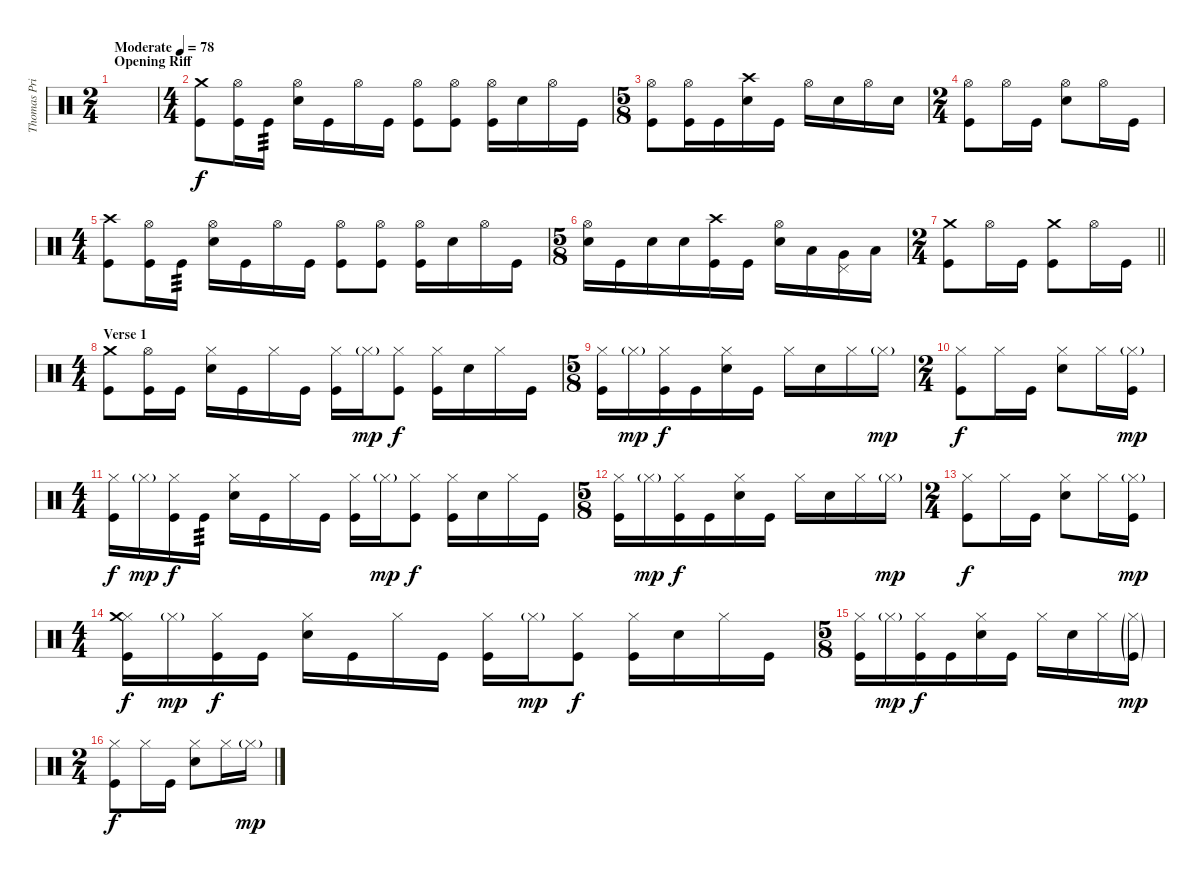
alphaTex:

\track ("Thomas Pridgen" "Thomas Pri") {instrument percussion}
\staff {score}
\articulation defaults
\ts (2 4)
\section ("" "Opening Riff")
\tempo (78 "Moderate")
\clef neutral
\ks c
|
\ts (4 4)
("Crash medium (hit)" "Kick (hit)").8 ("Hi-Hat (open)" "Kick (hit)").16 "Kick (hit)".16{tp 3} ("Hi-Hat (open)" "Snare (hit) 2").16 "Kick (hit)".16 "Hi-Hat (open)".16 "Kick (hit)".16 ("Hi-Hat (open)" "Kick (hit)").8 ("Hi-Hat (open)" "Kick (hit)").8 ("Hi-Hat (open)" "Kick (hit)").16 "Snare (hit) 2".16 "Hi-Hat (open)".16 "Kick (hit)".16 |
\ts (5 8)
("Hi-Hat (open)" "Kick (hit)").8 ("Hi-Hat (open)" "Kick (hit)").16 "Kick (hit)".16 ("Crash high (hit)" "Snare (hit) 2").16 "Kick (hit)".16 "Hi-Hat (open)".16 "Snare (hit) 2".16 "Hi-Hat (open)".16 "Snare (hit) 2".16 |
\ts (2 4)
("Hi-Hat (open)" "Kick (hit)").8 "Hi-Hat (open)".16 "Kick (hit)".16 ("Hi-Hat (open)" "Snare (hit) 2").8 "Hi-Hat (open)".16 "Kick (hit)".16 |
\ts (4 4)
("Crash high (hit)" "Kick (hit)").8 ("Hi-Hat (open)" "Kick (hit)").16 "Kick (hit)".16{tp 3} ("Hi-Hat (open)" "Snare (hit) 2").16 "Kick (hit)".16 "Hi-Hat (open)".16 "Kick (hit)".16 ("Hi-Hat (open)" "Kick (hit)").8 ("Hi-Hat (open)" "Kick (hit)").8 ("Hi-Hat (open)" "Kick (hit)").16 "Snare (hit) 2".16 "Hi-Hat (open)".16 "Kick (hit)".16 |
\ts (5 8)
("Hi-Hat (open)" "Snare (hit) 2").16 "Kick (hit)".16 "Snare (hit) 2".16 "Snare (hit) 2".16 ("Crash high (hit)" "Kick (hit)").16 "Kick (hit)".16 ("Hi-Hat (open)" "Snare (hit) 2").16 "Low Tom (hit)".16 ("Pedal Hi-Hat (hit)" "Very Low Tom (hit)").16 "Low Floor Tom (hit)".16 |
\ts (2 4)
\barLineRight lightlight
("Crash medium (hit)" "Kick (hit)").8 "Hi-Hat (open)".16 "Kick (hit)".16 ("Crash medium (hit)" "Kick (hit)").8 "Hi-Hat (open)".16 "Kick (hit)".16 |
\ts (4 4)
\section ("" "Verse 1")
("Crash medium (hit)" "Kick (hit)").8 ("Hi-Hat (open)" "Kick (hit)").16 "Kick (hit)".16 ("Hi-Hat (closed)" "Snare (hit) 2").16 "Kick (hit)".16 "Hi-Hat (closed)".16 "Kick (hit)".16 ("Hi-Hat (closed)" "Kick (hit)").16 "Hi-Hat (closed)"{g}.16{dy mp} ("Hi-Hat (closed)" "Kick (hit)").8{dy f} ("Hi-Hat (closed)" "Kick (hit)").16 "Snare (hit) 2".16 "Hi-Hat (closed)".16 "Kick (hit)".16 |
\ts (5 8)
("Hi-Hat (closed)" "Kick (hit)").16 "Hi-Hat (closed)"{g}.16{dy mp} ("Hi-Hat (closed)" "Kick (hit)").16{dy f} "Kick (hit)".16 ("Hi-Hat (closed)" "Snare (hit) 2").16 "Kick (hit)".16 "Hi-Hat (closed)".16 "Snare (hit) 2".16 "Hi-Hat (closed)".16 "Hi-Hat (closed)"{g}.16{dy mp} |
\ts (2 4)
("Hi-Hat (closed)" "Kick (hit)").8{dy f} "Hi-Hat (closed)".16 "Kick (hit)".16 ("Hi-Hat (closed)" "Snare (hit) 2").8 "Hi-Hat (closed)".16 ("Hi-Hat (closed)"{g} "Kick (hit)").16{dy mp} |
\ts (4 4)
("Hi-Hat (closed)" "Kick (hit)").16{dy f} "Hi-Hat (closed)"{g}.16{dy mp} ("Hi-Hat (closed)" "Kick (hit)").16{dy f} "Kick (hit)".16{tp 3} ("Hi-Hat (closed)" "Snare (hit) 2").16 "Kick (hit)".16 "Hi-Hat (closed)".16 "Kick (hit)".16 ("Hi-Hat (closed)" "Kick (hit)").16 "Hi-Hat (closed)"{g}.16{dy mp} ("Hi-Hat (closed)" "Kick (hit)").8{dy f} ("Hi-Hat (closed)" "Kick (hit)").16 "Snare (hit) 2".16 "Hi-Hat (closed)".16 "Kick (hit)".16 |
\ts (5 8)
("Hi-Hat (closed)" "Kick (hit)").16 "Hi-Hat (closed)"{g}.16{dy mp} ("Hi-Hat (closed)" "Kick (hit)").16{dy f} "Kick (hit)".16 ("Hi-Hat (closed)" "Snare (hit) 2").16 "Kick (hit)".16 "Hi-Hat (closed)".16 "Snare (hit) 2".16 "Hi-Hat (closed)".16 "Hi-Hat (closed)"{g}.16{dy mp} |
\ts (2 4)
("Hi-Hat (closed)" "Kick (hit)").8{dy f} "Hi-Hat (closed)".16 "Kick (hit)".16 ("Hi-Hat (closed)" "Snare (hit) 2").8 "Hi-Hat (closed)".16 ("Hi-Hat (closed)"{g} "Kick (hit)").16{dy mp} |
\ts (4 4)
("Hi-Hat (closed)" "Crash medium (hit)" "Kick (hit)").16{dy f} "Hi-Hat (closed)"{g}.16{dy mp} ("Hi-Hat (closed)" "Kick (hit)").16{dy f} "Kick (hit)".16 ("Hi-Hat (closed)" "Snare (hit) 2").16 "Kick (hit)".16 "Hi-Hat (closed)".16 "Kick (hit)".16 ("Hi-Hat (closed)" "Kick (hit)").16 "Hi-Hat (closed)"{g}.16{dy mp} ("Hi-Hat (closed)" "Kick (hit)").8{dy f} ("Hi-Hat (closed)" "Kick (hit)").16 "Snare (hit) 2".16 "Hi-Hat (closed)".16 "Kick (hit)".16 |
\ts (5 8)
("Hi-Hat (closed)" "Kick (hit)").16 "Hi-Hat (closed)"{g}.16{dy mp} ("Hi-Hat (closed)" "Kick (hit)").16{dy f} "Kick (hit)".16 ("Hi-Hat (closed)" "Snare (hit) 2").16 "Kick (hit)".16 "Hi-Hat (closed)".16 "Snare (hit) 2".16 "Hi-Hat (closed)".16 ("Hi-Hat (closed)"{g} "Kick (hit)"{g}).16{dy mp} |
\ts (2 4)
("Hi-Hat (closed)" "Kick (hit)").8{dy f} "Hi-Hat (closed)".16 "Kick (hit)".16 ("Hi-Hat (closed)" "Snare (hit) 2").8 "Hi-Hat (closed)".16 "Hi-Hat (closed)"{g}.16{dy mp}
